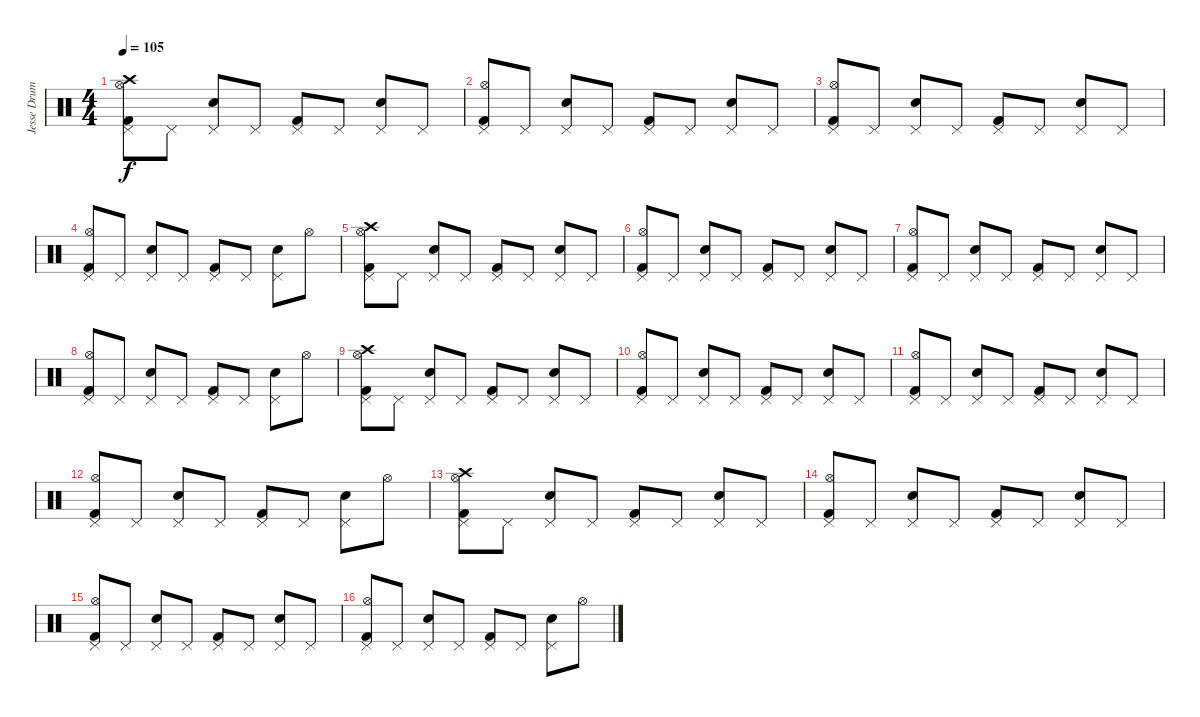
\track ("Jesse Drums" "Jesse Drum") {instrument percussion}
\staff {score}
\articulation defaults
\ts (4 4)
\tempo 105
\clef neutral
\ks c
("Pedal Hi-Hat (hit)" "Hi-Hat (open)" "Kick (hit) 2" "Crash high (hit)").8{dy f} "Pedal Hi-Hat (hit)".8 ("Pedal Hi-Hat (hit)" "Electric Snare (hit)").8 "Pedal Hi-Hat (hit)".8 ("Pedal Hi-Hat (hit)" "Kick (hit) 2").8 "Pedal Hi-Hat (hit)".8 ("Pedal Hi-Hat (hit)" "Electric Snare (hit)").8 "Pedal Hi-Hat (hit)".8 |
("Pedal Hi-Hat (hit)" "Hi-Hat (open)" "Kick (hit) 2").8 "Pedal Hi-Hat (hit)".8 ("Pedal Hi-Hat (hit)" "Electric Snare (hit)").8 "Pedal Hi-Hat (hit)".8 ("Pedal Hi-Hat (hit)" "Kick (hit) 2").8 "Pedal Hi-Hat (hit)".8 ("Pedal Hi-Hat (hit)" "Electric Snare (hit)").8 "Pedal Hi-Hat (hit)".8 |
("Pedal Hi-Hat (hit)" "Hi-Hat (open)" "Kick (hit) 2").8 "Pedal Hi-Hat (hit)".8 ("Pedal Hi-Hat (hit)" "Electric Snare (hit)").8 "Pedal Hi-Hat (hit)".8 ("Pedal Hi-Hat (hit)" "Kick (hit) 2").8 "Pedal Hi-Hat (hit)".8 ("Pedal Hi-Hat (hit)" "Electric Snare (hit)").8 "Pedal Hi-Hat (hit)".8 |
("Pedal Hi-Hat (hit)" "Hi-Hat (open)" "Kick (hit) 2").8 "Pedal Hi-Hat (hit)".8 ("Pedal Hi-Hat (hit)" "Electric Snare (hit)").8 "Pedal Hi-Hat (hit)".8 ("Pedal Hi-Hat (hit)" "Kick (hit) 2").8 "Pedal Hi-Hat (hit)".8 ("Pedal Hi-Hat (hit)" "Electric Snare (hit)").8 "Hi-Hat (open)".8 |
("Pedal Hi-Hat (hit)" "Hi-Hat (open)" "Kick (hit) 2" "Crash high (hit)").8 "Pedal Hi-Hat (hit)".8 ("Pedal Hi-Hat (hit)" "Electric Snare (hit)").8 "Pedal Hi-Hat (hit)".8 ("Pedal Hi-Hat (hit)" "Kick (hit) 2").8 "Pedal Hi-Hat (hit)".8 ("Pedal Hi-Hat (hit)" "Electric Snare (hit)").8 "Pedal Hi-Hat (hit)".8 |
("Pedal Hi-Hat (hit)" "Hi-Hat (open)" "Kick (hit) 2").8 "Pedal Hi-Hat (hit)".8 ("Pedal Hi-Hat (hit)" "Electric Snare (hit)").8 "Pedal Hi-Hat (hit)".8 ("Pedal Hi-Hat (hit)" "Kick (hit) 2").8 "Pedal Hi-Hat (hit)".8 ("Pedal Hi-Hat (hit)" "Electric Snare (hit)").8 "Pedal Hi-Hat (hit)".8 |
("Pedal Hi-Hat (hit)" "Hi-Hat (open)" "Kick (hit) 2").8 "Pedal Hi-Hat (hit)".8 ("Pedal Hi-Hat (hit)" "Electric Snare (hit)").8 "Pedal Hi-Hat (hit)".8 ("Pedal Hi-Hat (hit)" "Kick (hit) 2").8 "Pedal Hi-Hat (hit)".8 ("Pedal Hi-Hat (hit)" "Electric Snare (hit)").8 "Pedal Hi-Hat (hit)".8 |
("Pedal Hi-Hat (hit)" "Hi-Hat (open)" "Kick (hit) 2").8 "Pedal Hi-Hat (hit)".8 ("Pedal Hi-Hat (hit)" "Electric Snare (hit)").8 "Pedal Hi-Hat (hit)".8 ("Pedal Hi-Hat (hit)" "Kick (hit) 2").8 "Pedal Hi-Hat (hit)".8 ("Pedal Hi-Hat (hit)" "Electric Snare (hit)").8 "Hi-Hat (open)".8 |
("Pedal Hi-Hat (hit)" "Hi-Hat (open)" "Kick (hit) 2" "Crash high (hit)").8 "Pedal Hi-Hat (hit)".8 ("Pedal Hi-Hat (hit)" "Electric Snare (hit)").8 "Pedal Hi-Hat (hit)".8 ("Pedal Hi-Hat (hit)" "Kick (hit) 2").8 "Pedal Hi-Hat (hit)".8 ("Pedal Hi-Hat (hit)" "Electric Snare (hit)").8 "Pedal Hi-Hat (hit)".8 |
("Pedal Hi-Hat (hit)" "Hi-Hat (open)" "Kick (hit) 2").8 "Pedal Hi-Hat (hit)".8 ("Pedal Hi-Hat (hit)" "Electric Snare (hit)").8 "Pedal Hi-Hat (hit)".8 ("Pedal Hi-Hat (hit)" "Kick (hit) 2").8 "Pedal Hi-Hat (hit)".8 ("Pedal Hi-Hat (hit)" "Electric Snare (hit)").8 "Pedal Hi-Hat (hit)".8 |
("Pedal Hi-Hat (hit)" "Hi-Hat (open)" "Kick (hit) 2").8 "Pedal Hi-Hat (hit)".8 ("Pedal Hi-Hat (hit)" "Electric Snare (hit)").8 "Pedal Hi-Hat (hit)".8 ("Pedal Hi-Hat (hit)" "Kick (hit) 2").8 "Pedal Hi-Hat (hit)".8 ("Pedal Hi-Hat (hit)" "Electric Snare (hit)").8 "Pedal Hi-Hat (hit)".8 |
("Pedal Hi-Hat (hit)" "Hi-Hat (open)" "Kick (hit) 2").8 "Pedal Hi-Hat (hit)".8 ("Pedal Hi-Hat (hit)" "Electric Snare (hit)").8 "Pedal Hi-Hat (hit)".8 ("Pedal Hi-Hat (hit)" "Kick (hit) 2").8 "Pedal Hi-Hat (hit)".8 ("Pedal Hi-Hat (hit)" "Electric Snare (hit)").8 "Hi-Hat (open)".8 |
("Pedal Hi-Hat (hit)" "Hi-Hat (open)" "Kick (hit) 2" "Crash high (hit)").8 "Pedal Hi-Hat (hit)".8 ("Pedal Hi-Hat (hit)" "Electric Snare (hit)").8 "Pedal Hi-Hat (hit)".8 ("Pedal Hi-Hat (hit)" "Kick (hit) 2").8 "Pedal Hi-Hat (hit)".8 ("Pedal Hi-Hat (hit)" "Electric Snare (hit)").8 "Pedal Hi-Hat (hit)".8 |
("Pedal Hi-Hat (hit)" "Hi-Hat (open)" "Kick (hit) 2").8 "Pedal Hi-Hat (hit)".8 ("Pedal Hi-Hat (hit)" "Electric Snare (hit)").8 "Pedal Hi-Hat (hit)".8 ("Pedal Hi-Hat (hit)" "Kick (hit) 2").8 "Pedal Hi-Hat (hit)".8 ("Pedal Hi-Hat (hit)" "Electric Snare (hit)").8 "Pedal Hi-Hat (hit)".8 |
("Pedal Hi-Hat (hit)" "Hi-Hat (open)" "Kick (hit) 2").8 "Pedal Hi-Hat (hit)".8 ("Pedal Hi-Hat (hit)" "Electric Snare (hit)").8 "Pedal Hi-Hat (hit)".8 ("Pedal Hi-Hat (hit)" "Kick (hit) 2").8 "Pedal Hi-Hat (hit)".8 ("Pedal Hi-Hat (hit)" "Electric Snare (hit)").8 "Pedal Hi-Hat (hit)".8 |
("Pedal Hi-Hat (hit)" "Hi-Hat (open)" "Kick (hit) 2").8 "Pedal Hi-Hat (hit)".8 ("Pedal Hi-Hat (hit)" "Electric Snare (hit)").8 "Pedal Hi-Hat (hit)".8 ("Pedal Hi-Hat (hit)" "Kick (hit) 2").8 "Pedal Hi-Hat (hit)".8 ("Pedal Hi-Hat (hit)" "Electric Snare (hit)").8 "Hi-Hat (open)".8
